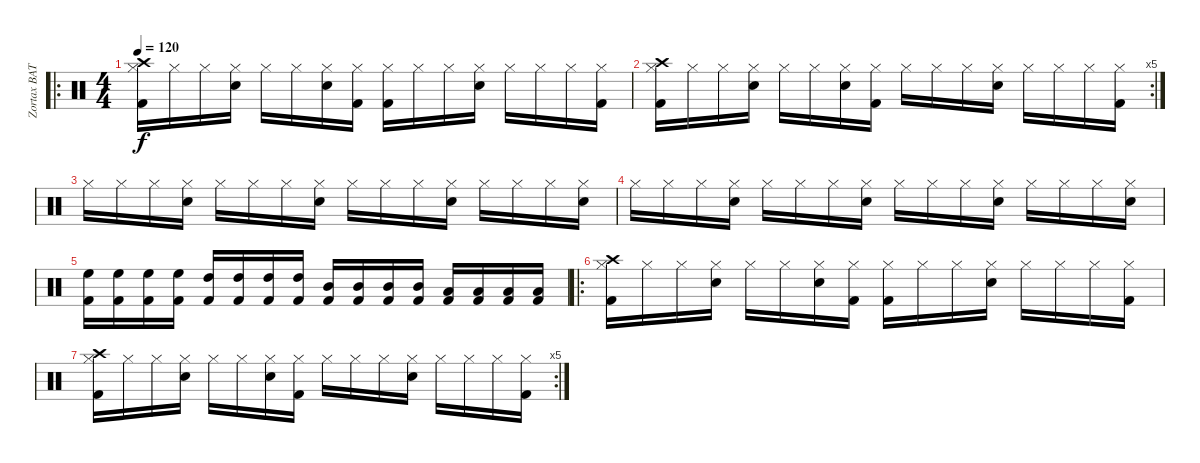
\track ("Zortax BATTERY" "Zortax BAT") {instrument percussion}
\staff {score}
\articulation defaults
\ro
\ts (4 4)
\tempo 120
\clef neutral
\ks c
("Kick (hit) 2" "Hi-Hat (closed)" "Crash high (hit)").16{dy f} "Hi-Hat (closed)".16 "Hi-Hat (closed)".16 ("Hi-Hat (closed)" "Snare (hit) 2").16 "Hi-Hat (closed)".16 "Hi-Hat (closed)".16 ("Hi-Hat (closed)" "Snare (hit) 2").16 ("Kick (hit) 2" "Hi-Hat (closed)").16 ("Kick (hit) 2" "Hi-Hat (closed)").16 "Hi-Hat (closed)".16 "Hi-Hat (closed)".16 ("Hi-Hat (closed)" "Snare (hit) 2").16 "Hi-Hat (closed)".16 "Hi-Hat (closed)".16 "Hi-Hat (closed)".16 ("Kick (hit) 2" "Hi-Hat (closed)").16 |
\rc 5
("Kick (hit) 2" "Hi-Hat (closed)" "Crash high (hit)").16 "Hi-Hat (closed)".16 "Hi-Hat (closed)".16 ("Hi-Hat (closed)" "Snare (hit) 2").16 "Hi-Hat (closed)".16 "Hi-Hat (closed)".16 ("Hi-Hat (closed)" "Snare (hit) 2").16 ("Kick (hit) 2" "Hi-Hat (closed)").16 "Hi-Hat (closed)".16 "Hi-Hat (closed)".16 "Hi-Hat (closed)".16 ("Hi-Hat (closed)" "Snare (hit) 2").16 "Hi-Hat (closed)".16 "Hi-Hat (closed)".16 "Hi-Hat (closed)".16 ("Kick (hit) 2" "Hi-Hat (closed)").16 |
"Hi-Hat (closed)".16 "Hi-Hat (closed)".16 "Hi-Hat (closed)".16 ("Hi-Hat (closed)" "Snare (hit) 2").16 "Hi-Hat (closed)".16 "Hi-Hat (closed)".16 "Hi-Hat (closed)".16 ("Hi-Hat (closed)" "Snare (hit) 2").16 "Hi-Hat (closed)".16 "Hi-Hat (closed)".16 "Hi-Hat (closed)".16 ("Hi-Hat (closed)" "Snare (hit) 2").16 "Hi-Hat (closed)".16 "Hi-Hat (closed)".16 "Hi-Hat (closed)".16 ("Hi-Hat (closed)" "Snare (hit) 2").16 |
"Hi-Hat (closed)".16 "Hi-Hat (closed)".16 "Hi-Hat (closed)".16 ("Hi-Hat (closed)" "Snare (hit) 2").16 "Hi-Hat (closed)".16 "Hi-Hat (closed)".16 "Hi-Hat (closed)".16 ("Hi-Hat (closed)" "Snare (hit) 2").16 "Hi-Hat (closed)".16 "Hi-Hat (closed)".16 "Hi-Hat (closed)".16 ("Hi-Hat (closed)" "Snare (hit) 2").16 "Hi-Hat (closed)".16 "Hi-Hat (closed)".16 "Hi-Hat (closed)".16 ("Hi-Hat (closed)" "Snare (hit) 2").16 |
("Kick (hit) 2" "High Floor Tom (hit)").16 ("Kick (hit) 2" "High Floor Tom (hit)").16 ("Kick (hit) 2" "High Floor Tom (hit)").16 ("Kick (hit) 2" "High Floor Tom (hit)").16 ("Kick (hit) 2" "High Tom (hit)").16 ("Kick (hit) 2" "High Tom (hit)").16 ("Kick (hit) 2" "High Tom (hit)").16 ("Kick (hit) 2" "High Tom (hit)").16 ("Kick (hit) 2" "Mid Tom (hit)").16 ("Kick (hit) 2" "Mid Tom (hit)").16 ("Kick (hit) 2" "Mid Tom (hit)").16 ("Kick (hit) 2" "Mid Tom (hit)").16 ("Kick (hit) 2" "Low Tom (hit)").16 ("Kick (hit) 2" "Low Tom (hit)").16 ("Kick (hit) 2" "Low Tom (hit)").16 ("Kick (hit) 2" "Low Tom (hit)").16 |
\ro
("Kick (hit) 2" "Hi-Hat (closed)" "Crash high (hit)").16 "Hi-Hat (closed)".16 "Hi-Hat (closed)".16 ("Hi-Hat (closed)" "Snare (hit) 2").16 "Hi-Hat (closed)".16 "Hi-Hat (closed)".16 ("Hi-Hat (closed)" "Snare (hit) 2").16 ("Kick (hit) 2" "Hi-Hat (closed)").16 ("Kick (hit) 2" "Hi-Hat (closed)").16 "Hi-Hat (closed)".16 "Hi-Hat (closed)".16 ("Hi-Hat (closed)" "Snare (hit) 2").16 "Hi-Hat (closed)".16 "Hi-Hat (closed)".16 "Hi-Hat (closed)".16 ("Kick (hit) 2" "Hi-Hat (closed)").16 |
\rc 5
("Kick (hit) 2" "Hi-Hat (closed)" "Crash high (hit)").16 "Hi-Hat (closed)".16 "Hi-Hat (closed)".16 ("Hi-Hat (closed)" "Snare (hit) 2").16 "Hi-Hat (closed)".16 "Hi-Hat (closed)".16 ("Hi-Hat (closed)" "Snare (hit) 2").16 ("Kick (hit) 2" "Hi-Hat (closed)").16 "Hi-Hat (closed)".16 "Hi-Hat (closed)".16 "Hi-Hat (closed)".16 ("Hi-Hat (closed)" "Snare (hit) 2").16 "Hi-Hat (closed)".16 "Hi-Hat (closed)".16 "Hi-Hat (closed)".16 ("Kick (hit) 2" "Hi-Hat (closed)").16
